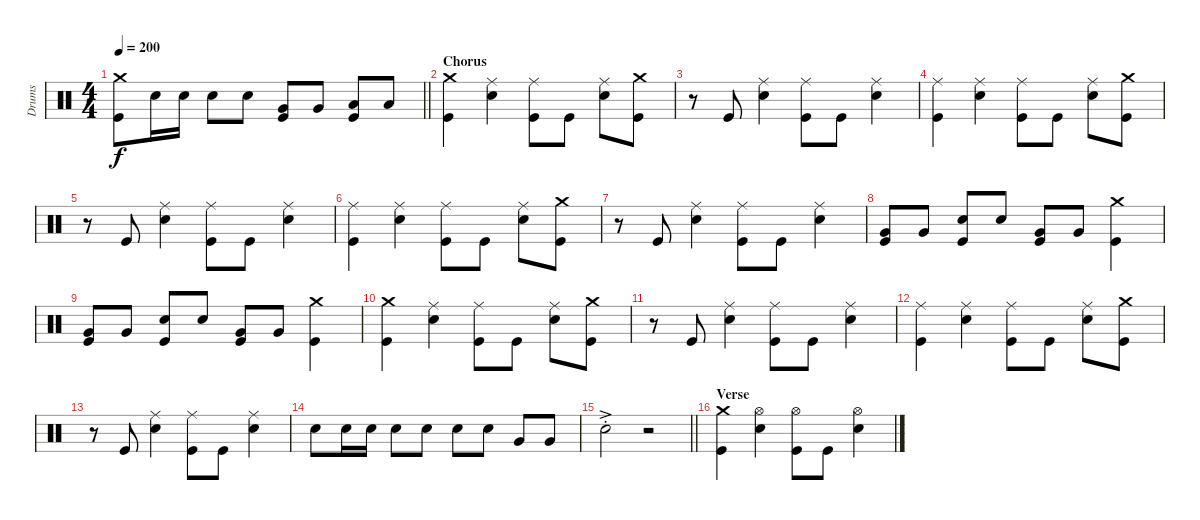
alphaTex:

\track ("Drums" "Drums") {instrument percussion}
\staff {score}
\articulation defaults
\ts (4 4)
\tempo 200
\clef neutral
\barLineRight lightlight
\ks c
("Kick (hit)" "Crash medium (hit)").8{dy f} "Snare (hit) 2".16 "Snare (hit) 2".16 "Snare (hit) 2".8 "Snare (hit) 2".8 ("Very Low Tom (hit)" "Kick (hit)").8 "Very Low Tom (hit)".8 ("Low Floor Tom (hit)" "Kick (hit)").8 "Low Floor Tom (hit)".8 |
\section ("" "Chorus")
("Kick (hit)" "Crash medium (hit)").4 ("Snare (hit) 2" "Ride (middle)").4 ("Kick (hit)" "Ride (middle)").8 "Kick (hit)".8 ("Snare (hit) 2" "Ride (middle)").8 ("Kick (hit)" "Crash medium (hit)").8 |
r.8 "Kick (hit)".8 ("Snare (hit) 2" "Ride (middle)").4 ("Kick (hit)" "Ride (middle)").8 "Kick (hit)".8 ("Snare (hit) 2" "Ride (middle)").4 |
("Kick (hit)" "Ride (middle)").4 ("Snare (hit) 2" "Ride (middle)").4 ("Kick (hit)" "Ride (middle)").8 "Kick (hit)".8 ("Snare (hit) 2" "Ride (middle)").8 ("Kick (hit)" "Crash medium (hit)").8 |
r.8 "Kick (hit)".8 ("Snare (hit) 2" "Ride (middle)").4 ("Kick (hit)" "Ride (middle)").8 "Kick (hit)".8 ("Snare (hit) 2" "Ride (middle)").4 |
("Kick (hit)" "Ride (middle)").4 ("Snare (hit) 2" "Ride (middle)").4 ("Kick (hit)" "Ride (middle)").8 "Kick (hit)".8 ("Snare (hit) 2" "Ride (middle)").8 ("Kick (hit)" "Crash medium (hit)").8 |
r.8 "Kick (hit)".8 ("Snare (hit) 2" "Ride (middle)").4 ("Kick (hit)" "Ride (middle)").8 "Kick (hit)".8 ("Snare (hit) 2" "Ride (middle)").4 |
("Kick (hit)" "Very Low Tom (hit)").8 "Very Low Tom (hit)".8 ("Kick (hit)" "Snare (hit) 2").8 "Snare (hit) 2".8 ("Kick (hit)" "Very Low Tom (hit)").8 "Very Low Tom (hit)".8 ("Kick (hit)" "Crash medium (hit)").4 |
("Kick (hit)" "Very Low Tom (hit)").8 "Very Low Tom (hit)".8 ("Kick (hit)" "Snare (hit) 2").8 "Snare (hit) 2".8 ("Kick (hit)" "Very Low Tom (hit)").8 "Very Low Tom (hit)".8 ("Kick (hit)" "Crash medium (hit)").4 |
("Kick (hit)" "Crash medium (hit)").4 ("Snare (hit) 2" "Ride (middle)").4 ("Kick (hit)" "Ride (middle)").8 "Kick (hit)".8 ("Snare (hit) 2" "Ride (middle)").8 ("Kick (hit)" "Crash medium (hit)").8 |
r.8 "Kick (hit)".8 ("Snare (hit) 2" "Ride (middle)").4 ("Kick (hit)" "Ride (middle)").8 "Kick (hit)".8 ("Snare (hit) 2" "Ride (middle)").4 |
("Kick (hit)" "Ride (middle)").4 ("Snare (hit) 2" "Ride (middle)").4 ("Kick (hit)" "Ride (middle)").8 "Kick (hit)".8 ("Snare (hit) 2" "Ride (middle)").8 ("Kick (hit)" "Crash medium (hit)").8 |
r.8 "Kick (hit)".8 ("Snare (hit) 2" "Ride (middle)").4 ("Kick (hit)" "Ride (middle)").8 "Kick (hit)".8 ("Snare (hit) 2" "Ride (middle)").4 |
"Snare (hit) 2".8 "Snare (hit) 2".16 "Snare (hit) 2".16 "Snare (hit) 2".8 "Snare (hit) 2".8 "Snare (hit) 2".8 "Snare (hit) 2".8 "Very Low Tom (hit)".8 "Very Low Tom (hit)".8 |
\barLineRight lightlight "Snare (hit) 2"{ac st}.2
r.2 |
\section ("" "Verse")
("Kick (hit)" "Crash medium (hit)").4 ("Snare (hit) 2" "Hi-Hat (open)").4 ("Kick (hit)" "Hi-Hat (open)").8 "Kick (hit)".8 ("Snare (hit) 2" "Hi-Hat (open)").4
